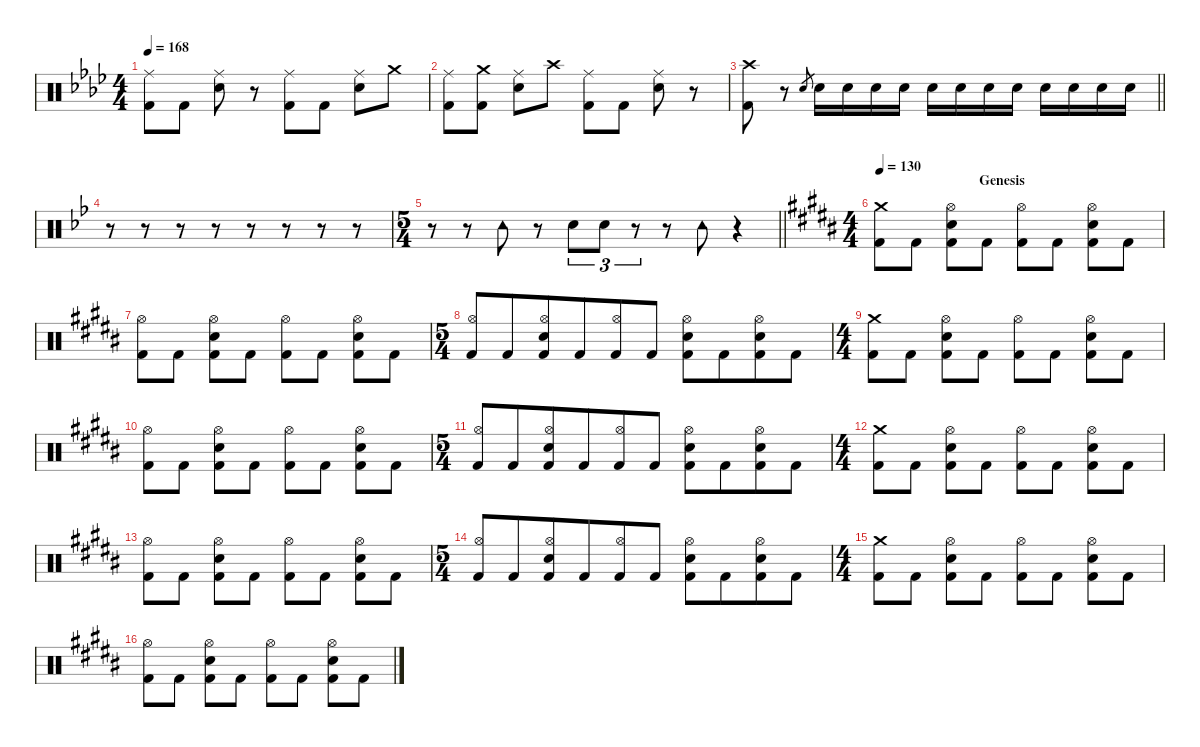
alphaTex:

\defaultSystemsLayout 4
\hideDynamics
\bracketExtendMode nobrackets
\singleTrackTrackNamePolicy hidden
\multiTrackTrackNamePolicy hidden
\firstSystemTrackNameMode fullname
\otherSystemsTrackNameOrientation horizontal
\track ("DRUMS" "drm.") {instrument percussion}
\staff {score}
\articulation defaults
\ts (4 4)
\tempo 168
\clef neutral
\ks ab
("Ride (middle)"{acc forcenatural} "Kick (hit) 2"{acc forcenatural}).8{dy ff beam Down} "Kick (hit) 2"{acc forcenatural}.8{beam Down} ("Ride (middle)"{acc forcenatural} "Snare (hit) 2"{acc forcenatural}).8{beam Down} r.8{beam Down} ("Ride (middle)"{acc forcenatural} "Kick (hit) 2"{acc forcenatural}).8{beam Down} "Kick (hit) 2"{acc forcenatural}.8{beam Down} ("Ride (middle)"{acc forcenatural} "Snare (hit) 2"{acc forcenatural}).8{beam Down} "Crash medium (hit)"{acc forcenatural}.8{dy f beam Down} |
("Ride (middle)"{acc forcenatural} "Kick (hit) 2"{acc forcenatural}).8{dy ff beam Down} ("Crash medium (hit)"{acc forcenatural} "Kick (hit) 2"{acc forcenatural}).8{dy f beam Down} ("Ride (middle)"{acc forcenatural} "Snare (hit) 2"{acc forcenatural}).8{dy ff beam Down} "Crash high (hit)"{acc forcenatural}.8{dy f beam Down} ("Ride (middle)"{acc forcenatural} "Kick (hit) 2"{acc forcenatural}).8{dy ff beam Down} "Kick (hit) 2"{acc forcenatural}.8{beam Down} ("Ride (middle)"{acc forcenatural} "Snare (hit) 2"{acc forcenatural}).8{beam Down} r.8{beam Down} |
\barLineRight lightlight
("Crash high (hit)"{acc forcenatural} "Kick (hit) 2"{acc forcenatural}).8{beam Down} r.8{beam Down} "Electric Snare (hit)"{acc forcenatural}.8{gr dy mf beam Up} "Snare (hit) 2"{acc forcenatural}.16{dy mp beam Down} "Snare (hit) 2"{acc forcenatural}.16{beam Down} "Snare (hit) 2"{acc forcenatural}.16{beam Down} "Snare (hit) 2"{acc forcenatural}.16{beam Down} "Snare (hit) 2"{acc forcenatural}.16{beam Down} "Snare (hit) 2"{acc forcenatural}.16{beam Down} "Snare (hit) 2"{acc forcenatural}.16{beam Down} "Snare (hit) 2"{acc forcenatural}.16{beam Down} "Snare (hit) 2"{acc forcenatural}.16{beam Down} "Snare (hit) 2"{acc forcenatural}.16{beam Down} "Snare (hit) 2"{acc forcenatural}.16{beam Down} "Snare (hit) 2"{acc forcenatural}.16{dy ff beam Down} |
\ks gminor
r.8{beam Down} r.8{beam Down} r.8{beam Down} r.8{beam Down} r.8{beam Down} r.8{beam Down} r.8{beam Down} r.8{beam Down} |
\ts (5 4)
\beaming (8 6 4)
\barLineRight lightlight
r.8{beam Down} r.8{beam Down} "Tambourine (hit)"{acc forcenatural}.8{dy f beam Down} r.8{beam Down} "Snare (hit) 2"{acc forcenatural}.8{tu (3 2) dy ff beam Down} "Snare (hit) 2"{acc forcenatural}.8{tu (3 2) beam Down} r.8{tu (3 2) beam Down} r.8{beam Down} "Tambourine (hit)"{acc forcenatural}.8{beam Down} r.4{beam Down} |
\ts (4 4)
\beaming (8 2 2 2 2)
\section ("" "                              Genesis")
\tempo 130
\ks b
("Crash medium (hit)"{acc bb} "Kick (hit) 2"{acc bb}).8{beam Down} "Kick (hit) 2"{acc bb}.8{beam Down} ("Hi-Hat (open)"{acc bb} "Snare (hit) 2"{acc bb} "Kick (hit) 2"{acc bb}).8{dy mf beam Down} "Kick (hit) 2"{acc bb}.8{dy ff beam Down} ("Hi-Hat (open)"{acc bb} "Kick (hit) 2"{acc bb}).8{dy mf beam Down} "Kick (hit) 2"{acc bb}.8{dy ff beam Down} ("Hi-Hat (open)"{acc bb} "Snare (hit) 2"{acc bb} "Kick (hit) 2"{acc bb}).8{dy mf beam Down} "Kick (hit) 2"{acc bb}.8{dy ff beam Down} |
("Hi-Hat (open)"{acc bb} "Kick (hit) 2"{acc bb}).8{dy mf beam Down} "Kick (hit) 2"{acc bb}.8{dy ff beam Down} ("Hi-Hat (open)"{acc bb} "Snare (hit) 2"{acc bb} "Kick (hit) 2"{acc bb}).8{dy mf beam Down} "Kick (hit) 2"{acc bb}.8{dy ff beam Down} ("Hi-Hat (open)"{acc bb} "Kick (hit) 2"{acc bb}).8{dy mf beam Down} "Kick (hit) 2"{acc bb}.8{dy ff beam Down} ("Hi-Hat (open)"{acc bb} "Snare (hit) 2"{acc bb} "Kick (hit) 2"{acc bb}).8{dy mf beam Down} "Kick (hit) 2"{acc bb}.8{dy ff beam Down} |
\ts (5 4)
\beaming (8 6 4)
("Hi-Hat (open)"{acc bb} "Kick (hit) 2"{acc bb}).8{dy mf beam Up} "Kick (hit) 2"{acc bb}.8{dy ff beam Up} ("Hi-Hat (open)"{acc bb} "Snare (hit) 2"{acc bb} "Kick (hit) 2"{acc bb}).8{dy mf beam Up} "Kick (hit) 2"{acc bb}.8{dy ff beam Up} ("Hi-Hat (open)"{acc bb} "Kick (hit) 2"{acc bb}).8{dy mf beam Up} "Kick (hit) 2"{acc bb}.8{dy ff beam Up} ("Hi-Hat (open)"{acc bb} "Snare (hit) 2"{acc bb} "Kick (hit) 2"{acc bb}).8{beam Down} "Kick (hit) 2"{acc bb}.8{dy f beam Down} ("Hi-Hat (open)"{acc bb} "Snare (hit) 2"{acc bb} "Kick (hit) 2"{acc bb}).8{beam Down} "Kick (hit) 2"{acc bb}.8{dy ff beam Down} |
\ts (4 4)
\beaming (8 2 2 2 2)
("Crash medium (hit)"{acc bb} "Kick (hit) 2"{acc bb}).8{beam Down} "Kick (hit) 2"{acc bb}.8{beam Down} ("Hi-Hat (open)"{acc bb} "Snare (hit) 2"{acc bb} "Kick (hit) 2"{acc bb}).8{dy mf beam Down} "Kick (hit) 2"{acc bb}.8{dy ff beam Down} ("Hi-Hat (open)"{acc bb} "Kick (hit) 2"{acc bb}).8{dy mf beam Down} "Kick (hit) 2"{acc bb}.8{dy ff beam Down} ("Hi-Hat (open)"{acc bb} "Snare (hit) 2"{acc bb} "Kick (hit) 2"{acc bb}).8{dy mf beam Down} "Kick (hit) 2"{acc bb}.8{dy ff beam Down} |
("Hi-Hat (open)"{acc bb} "Kick (hit) 2"{acc bb}).8{dy mf beam Down} "Kick (hit) 2"{acc bb}.8{dy ff beam Down} ("Hi-Hat (open)"{acc bb} "Snare (hit) 2"{acc bb} "Kick (hit) 2"{acc bb}).8{dy mf beam Down} "Kick (hit) 2"{acc bb}.8{dy ff beam Down} ("Hi-Hat (open)"{acc bb} "Kick (hit) 2"{acc bb}).8{dy mf beam Down} "Kick (hit) 2"{acc bb}.8{dy ff beam Down} ("Hi-Hat (open)"{acc bb} "Snare (hit) 2"{acc bb} "Kick (hit) 2"{acc bb}).8{dy mf beam Down} "Kick (hit) 2"{acc bb}.8{dy ff beam Down} |
\ts (5 4)
\beaming (8 6 4)
("Hi-Hat (open)"{acc bb} "Kick (hit) 2"{acc bb}).8{dy mf beam Up} "Kick (hit) 2"{acc bb}.8{dy ff beam Up} ("Hi-Hat (open)"{acc bb} "Snare (hit) 2"{acc bb} "Kick (hit) 2"{acc bb}).8{dy mf beam Up} "Kick (hit) 2"{acc bb}.8{dy ff beam Up} ("Hi-Hat (open)"{acc bb} "Kick (hit) 2"{acc bb}).8{dy mf beam Up} "Kick (hit) 2"{acc bb}.8{dy ff beam Up} ("Hi-Hat (open)"{acc bb} "Snare (hit) 2"{acc bb} "Kick (hit) 2"{acc bb}).8{beam Down} "Kick (hit) 2"{acc bb}.8{dy f beam Down} ("Hi-Hat (open)"{acc bb} "Snare (hit) 2"{acc bb} "Kick (hit) 2"{acc bb}).8{beam Down} "Kick (hit) 2"{acc bb}.8{dy ff beam Down} |
\ts (4 4)
\beaming (8 2 2 2 2)
("Crash medium (hit)"{acc bb} "Kick (hit) 2"{acc bb}).8{beam Down} "Kick (hit) 2"{acc bb}.8{beam Down} ("Hi-Hat (open)"{acc bb} "Snare (hit) 2"{acc bb} "Kick (hit) 2"{acc bb}).8{dy mf beam Down} "Kick (hit) 2"{acc bb}.8{dy ff beam Down} ("Hi-Hat (open)"{acc bb} "Kick (hit) 2"{acc bb}).8{dy mf beam Down} "Kick (hit) 2"{acc bb}.8{dy ff beam Down} ("Hi-Hat (open)"{acc bb} "Snare (hit) 2"{acc bb} "Kick (hit) 2"{acc bb}).8{dy mf beam Down} "Kick (hit) 2"{acc bb}.8{dy ff beam Down} |
("Hi-Hat (open)"{acc bb} "Kick (hit) 2"{acc bb}).8{dy mf beam Down} "Kick (hit) 2"{acc bb}.8{dy ff beam Down} ("Hi-Hat (open)"{acc bb} "Snare (hit) 2"{acc bb} "Kick (hit) 2"{acc bb}).8{dy mf beam Down} "Kick (hit) 2"{acc bb}.8{dy ff beam Down} ("Hi-Hat (open)"{acc bb} "Kick (hit) 2"{acc bb}).8{dy mf beam Down} "Kick (hit) 2"{acc bb}.8{dy ff beam Down} ("Hi-Hat (open)"{acc bb} "Snare (hit) 2"{acc bb} "Kick (hit) 2"{acc bb}).8{dy mf beam Down} "Kick (hit) 2"{acc bb}.8{dy ff beam Down} |
\ts (5 4)
\beaming (8 6 4)
("Hi-Hat (open)"{acc bb} "Kick (hit) 2"{acc bb}).8{dy mf beam Up} "Kick (hit) 2"{acc bb}.8{dy ff beam Up} ("Hi-Hat (open)"{acc bb} "Snare (hit) 2"{acc bb} "Kick (hit) 2"{acc bb}).8{dy mf beam Up} "Kick (hit) 2"{acc bb}.8{dy ff beam Up} ("Hi-Hat (open)"{acc bb} "Kick (hit) 2"{acc bb}).8{dy mf beam Up} "Kick (hit) 2"{acc bb}.8{dy ff beam Up} ("Hi-Hat (open)"{acc bb} "Snare (hit) 2"{acc bb} "Kick (hit) 2"{acc bb}).8{beam Down} "Kick (hit) 2"{acc bb}.8{dy f beam Down} ("Hi-Hat (open)"{acc bb} "Snare (hit) 2"{acc bb} "Kick (hit) 2"{acc bb}).8{beam Down} "Kick (hit) 2"{acc bb}.8{dy ff beam Down} |
\ts (4 4)
\beaming (8 2 2 2 2)
("Crash medium (hit)"{acc bb} "Kick (hit) 2"{acc bb}).8{beam Down} "Kick (hit) 2"{acc bb}.8{beam Down} ("Hi-Hat (open)"{acc bb} "Snare (hit) 2"{acc bb} "Kick (hit) 2"{acc bb}).8{dy mf beam Down} "Kick (hit) 2"{acc bb}.8{dy ff beam Down} ("Hi-Hat (open)"{acc bb} "Kick (hit) 2"{acc bb}).8{dy mf beam Down} "Kick (hit) 2"{acc bb}.8{dy ff beam Down} ("Hi-Hat (open)"{acc bb} "Snare (hit) 2"{acc bb} "Kick (hit) 2"{acc bb}).8{dy mf beam Down} "Kick (hit) 2"{acc bb}.8{dy ff beam Down} |
("Hi-Hat (open)"{acc bb} "Kick (hit) 2"{acc bb}).8{dy mf beam Down} "Kick (hit) 2"{acc bb}.8{dy ff beam Down} ("Hi-Hat (open)"{acc bb} "Snare (hit) 2"{acc bb} "Kick (hit) 2"{acc bb}).8{dy mf beam Down} "Kick (hit) 2"{acc bb}.8{dy ff beam Down} ("Hi-Hat (open)"{acc bb} "Kick (hit) 2"{acc bb}).8{dy mf beam Down} "Kick (hit) 2"{acc bb}.8{dy ff beam Down} ("Hi-Hat (open)"{acc bb} "Snare (hit) 2"{acc bb} "Kick (hit) 2"{acc bb}).8{dy mf beam Down} "Kick (hit) 2"{acc bb}.8{dy ff beam Down}
